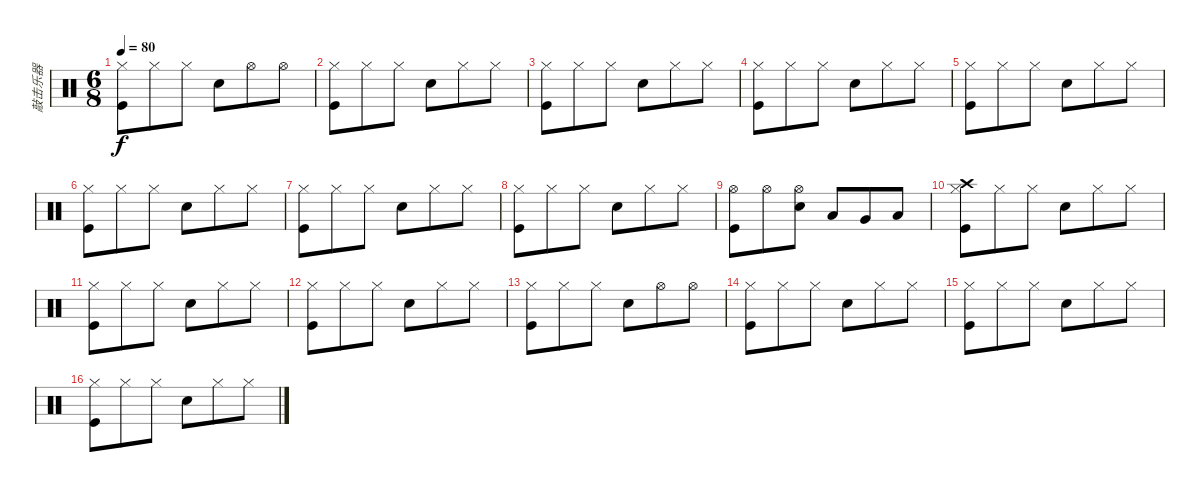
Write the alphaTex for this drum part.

\track ("敲击乐器" "敲击乐器") {instrument percussion}
\staff {score}
\articulation defaults
\ts (6 8)
\tempo 80
\clef neutral
\ks c
("Hi-Hat (closed)" "Kick (hit)").8{dy f} "Hi-Hat (closed)".8 "Hi-Hat (closed)".8 "Snare (hit) 2".8 "Hi-Hat (open)".8 "Hi-Hat (open)".8 |
("Hi-Hat (closed)" "Kick (hit)").8 "Hi-Hat (closed)".8 "Hi-Hat (closed)".8 "Snare (hit) 2".8 "Hi-Hat (closed)".8 "Hi-Hat (closed)".8 |
("Hi-Hat (closed)" "Kick (hit)").8 "Hi-Hat (closed)".8 "Hi-Hat (closed)".8 "Snare (hit) 2".8 "Hi-Hat (closed)".8 "Hi-Hat (closed)".8 |
("Hi-Hat (closed)" "Kick (hit)").8 "Hi-Hat (closed)".8 "Hi-Hat (closed)".8 "Snare (hit) 2".8 "Hi-Hat (closed)".8 "Hi-Hat (closed)".8 |
("Hi-Hat (closed)" "Kick (hit)").8 "Hi-Hat (closed)".8 "Hi-Hat (closed)".8 "Snare (hit) 2".8 "Hi-Hat (closed)".8 "Hi-Hat (closed)".8 |
("Hi-Hat (closed)" "Kick (hit)").8 "Hi-Hat (closed)".8 "Hi-Hat (closed)".8 "Snare (hit) 2".8 "Hi-Hat (closed)".8 "Hi-Hat (closed)".8 |
("Hi-Hat (closed)" "Kick (hit)").8 "Hi-Hat (closed)".8 "Hi-Hat (closed)".8 "Snare (hit) 2".8 "Hi-Hat (closed)".8 "Hi-Hat (closed)".8 |
("Hi-Hat (closed)" "Kick (hit)").8 "Hi-Hat (closed)".8 "Hi-Hat (closed)".8 "Snare (hit) 2".8 "Hi-Hat (closed)".8 "Hi-Hat (closed)".8 |
("Hi-Hat (open)" "Kick (hit)").8 "Hi-Hat (open)".8 ("Hi-Hat (open)" "Snare (hit) 2").8 "Low Tom (hit)".8 "Very Low Tom (hit)".8 "Low Tom (hit)".8 |
("Crash high (hit)" "Hi-Hat (closed)" "Kick (hit)").8 "Hi-Hat (closed)".8 "Hi-Hat (closed)".8 "Snare (hit) 2".8 "Hi-Hat (closed)".8 "Hi-Hat (closed)".8 |
("Hi-Hat (closed)" "Kick (hit)").8 "Hi-Hat (closed)".8 "Hi-Hat (closed)".8 "Snare (hit) 2".8 "Hi-Hat (closed)".8 "Hi-Hat (closed)".8 |
("Hi-Hat (closed)" "Kick (hit)").8 "Hi-Hat (closed)".8 "Hi-Hat (closed)".8 "Snare (hit) 2".8 "Hi-Hat (closed)".8 "Hi-Hat (closed)".8 |
("Hi-Hat (closed)" "Kick (hit)").8 "Hi-Hat (closed)".8 "Hi-Hat (closed)".8 "Snare (hit) 2".8 "Hi-Hat (open)".8 "Hi-Hat (open)".8 |
("Hi-Hat (closed)" "Kick (hit)").8 "Hi-Hat (closed)".8 "Hi-Hat (closed)".8 "Snare (hit) 2".8 "Hi-Hat (closed)".8 "Hi-Hat (closed)".8 |
("Hi-Hat (closed)" "Kick (hit)").8 "Hi-Hat (closed)".8 "Hi-Hat (closed)".8 "Snare (hit) 2".8 "Hi-Hat (closed)".8 "Hi-Hat (closed)".8 |
("Hi-Hat (closed)" "Kick (hit)").8 "Hi-Hat (closed)".8 "Hi-Hat (closed)".8 "Snare (hit) 2".8 "Hi-Hat (closed)".8 "Hi-Hat (closed)".8
